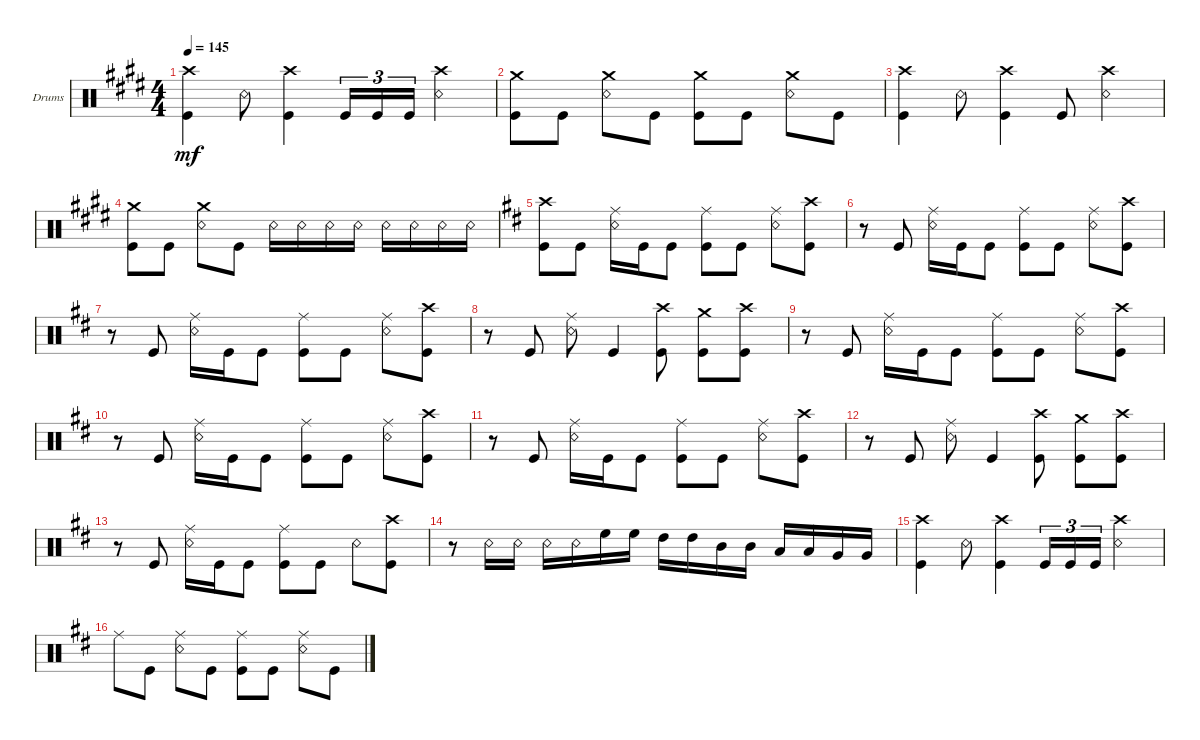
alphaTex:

\defaultSystemsLayout 4
\bracketExtendMode groupsimilarinstruments
\firstSystemTrackNameOrientation horizontal
\otherSystemsTrackNameOrientation horizontal
\track ("Drumkit" "Drums") {instrument percussion}
\staff {score}
\articulation defaults
\ts (4 4)
\tempo 145
\clef neutral
\ks c#minor
("Kick (hit)" "Crash high (hit)").4{dy mf} "Snare (rim shot)".8 ("Kick (hit)" "Crash high (hit)").4 "Kick (hit)".16{tu (3 2)} "Kick (hit)".16{tu (3 2)} "Kick (hit)".16{tu (3 2)} ("Snare (rim shot)" "Crash high (hit)").4 |
("Kick (hit)" "Crash medium (hit)").8 "Kick (hit)".8 ("Snare (rim shot)" "Crash medium (hit)").8 "Kick (hit)".8 ("Kick (hit)" "Crash medium (hit)").8 "Kick (hit)".8 ("Snare (rim shot)" "Crash medium (hit)").8 "Kick (hit)".8 |
("Kick (hit)" "Crash high (hit)").4 "Snare (rim shot)".8 ("Kick (hit)" "Crash high (hit)").4 "Kick (hit)".8 ("Snare (rim shot)" "Crash high (hit)").4 |
("Kick (hit)" "Crash medium (hit)").8 "Kick (hit)".8 ("Snare (rim shot)" "Crash medium (hit)").8 "Kick (hit)".8 "Snare (rim shot)".16 "Snare (rim shot)".16 "Snare (rim shot)".16 "Snare (rim shot)".16 "Snare (rim shot)".16 "Snare (rim shot)".16 "Snare (rim shot)".16 "Snare (rim shot)".16 |
\ks bminor
("Kick (hit)" "Crash high (hit)").8 "Kick (hit)".8 ("Snare (rim shot)" "Ride (middle)").16 "Kick (hit)".16 "Kick (hit)".8 ("Kick (hit)" "Ride (middle)").8 "Kick (hit)".8 ("Snare (rim shot)" "Ride (middle)").8 ("Kick (hit)" "Crash high (hit)").8 |
r.8 "Kick (hit)".8 ("Snare (rim shot)" "Ride (middle)").16 "Kick (hit)".16 "Kick (hit)".8 ("Kick (hit)" "Ride (middle)").8 "Kick (hit)".8 ("Snare (rim shot)" "Ride (middle)").8 ("Kick (hit)" "Crash high (hit)").8 |
r.8 "Kick (hit)".8 ("Snare (rim shot)" "Ride (middle)").16 "Kick (hit)".16 "Kick (hit)".8 ("Kick (hit)" "Ride (middle)").8 "Kick (hit)".8 ("Snare (rim shot)" "Ride (middle)").8 ("Kick (hit)" "Crash high (hit)").8 |
r.8 "Kick (hit)".8 ("Snare (rim shot)" "Ride (middle)").8 "Kick (hit)".4 ("Kick (hit)" "Crash high (hit)").8 ("Kick (hit)" "Crash medium (hit)").8 ("Kick (hit)" "Crash high (hit)").8 |
r.8 "Kick (hit)".8 ("Snare (rim shot)" "Ride (middle)").16 "Kick (hit)".16 "Kick (hit)".8 ("Kick (hit)" "Ride (middle)").8 "Kick (hit)".8 ("Snare (rim shot)" "Ride (middle)").8 ("Kick (hit)" "Crash high (hit)").8 |
r.8 "Kick (hit)".8 ("Snare (rim shot)" "Ride (middle)").16 "Kick (hit)".16 "Kick (hit)".8 ("Kick (hit)" "Ride (middle)").8 "Kick (hit)".8 ("Snare (rim shot)" "Ride (middle)").8 ("Kick (hit)" "Crash high (hit)").8 |
r.8 "Kick (hit)".8 ("Snare (rim shot)" "Ride (middle)").16 "Kick (hit)".16 "Kick (hit)".8 ("Kick (hit)" "Ride (middle)").8 "Kick (hit)".8 ("Snare (rim shot)" "Ride (middle)").8 ("Kick (hit)" "Crash high (hit)").8 |
r.8 "Kick (hit)".8 ("Snare (rim shot)" "Ride (middle)").8 "Kick (hit)".4 ("Kick (hit)" "Crash high (hit)").8 ("Kick (hit)" "Crash medium (hit)").8 ("Kick (hit)" "Crash high (hit)").8 |
r.8 "Kick (hit)".8 ("Snare (rim shot)" "Ride (middle)").16 "Kick (hit)".16 "Kick (hit)".8 ("Kick (hit)" "Ride (middle)").8 "Kick (hit)".8 "Snare (rim shot)".8 ("Kick (hit)" "Crash high (hit)").8 |
r.8 "Snare (rim shot)".16 "Snare (rim shot)".16 "Snare (rim shot)".16 "Snare (rim shot)".16 "High Floor Tom (hit)".16 "High Floor Tom (hit)".16 "High Tom (hit)".16 "High Tom (hit)".16 "Mid Tom (hit)".16 "Mid Tom (hit)".16 "Low Tom (hit)".16 "Low Tom (hit)".16 "Very Low Tom (hit)".16 "Very Low Tom (hit)".16 |
("Kick (hit)" "Crash high (hit)").4 "Snare (rim shot)".8 ("Kick (hit)" "Crash high (hit)").4 "Kick (hit)".16{tu (3 2)} "Kick (hit)".16{tu (3 2)} "Kick (hit)".16{tu (3 2)} ("Snare (rim shot)" "Crash high (hit)").4 |
"Ride (middle)".8 "Kick (hit)".8 ("Snare (rim shot)" "Ride (middle)").8 "Kick (hit)".8 ("Kick (hit)" "Ride (middle)").8 "Kick (hit)".8 ("Snare (rim shot)" "Ride (middle)").8 "Kick (hit)".8
